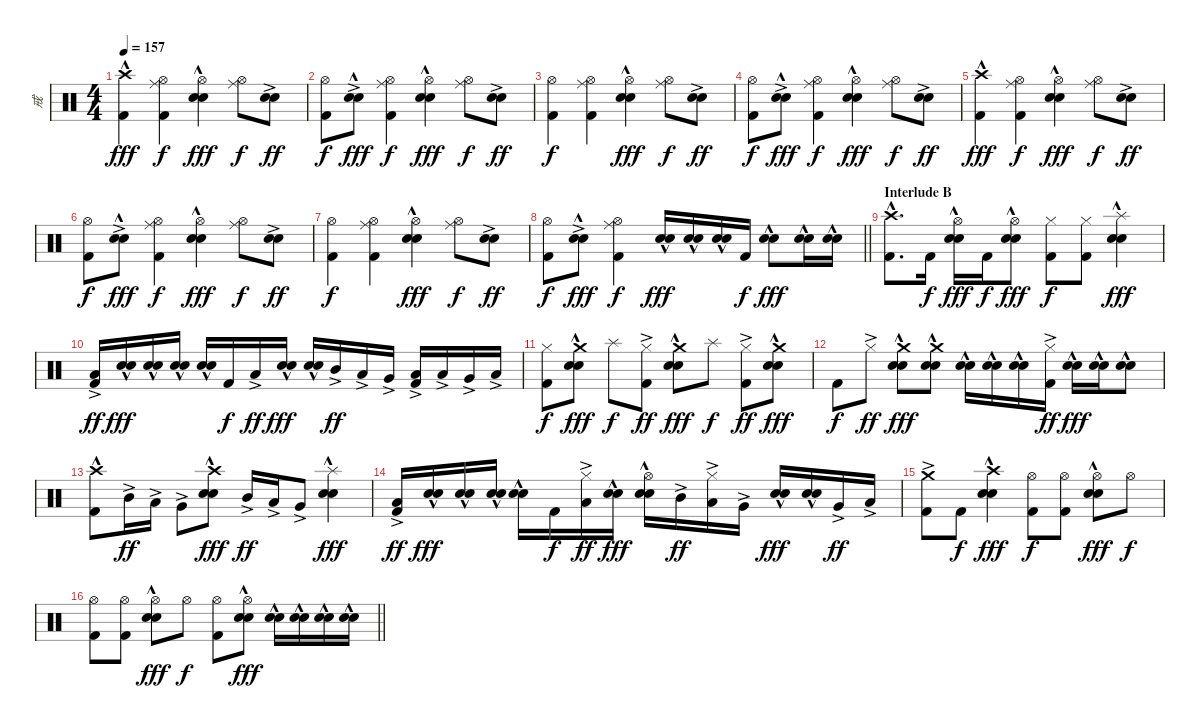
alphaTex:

\track ("戒" "戒") {instrument percussion}
\staff {score}
\articulation defaults
\ts (4 4)
\section ("" "")
\tempo 157
\clef neutral
\ks c
("Crash high (hit)"{hac} "Kick (hit) 2").4{dy fff} ("Hi-Hat (open)" "Ride (middle)" "Kick (hit) 2").4{dy f} ("Hi-Hat (open)" "Electric Snare (hit)"{hac} "Snare (hit) 2"{hac}).4{dy fff} ("Hi-Hat (open)" "Ride (middle)").8{dy f} ("Electric Snare (hit)"{ac} "Snare (hit) 2").8{dy ff} |
("Hi-Hat (open)" "Kick (hit) 2").8{dy f} ("Electric Snare (hit)"{ac} "Snare (hit) 2"{hac}).8{dy fff} ("Hi-Hat (open)" "Ride (middle)" "Kick (hit) 2").4{dy f} ("Hi-Hat (open)" "Electric Snare (hit)"{hac} "Snare (hit) 2"{hac}).4{dy fff} ("Hi-Hat (open)" "Ride (middle)").8{dy f} ("Electric Snare (hit)"{ac} "Snare (hit) 2").8{dy ff} |
("Hi-Hat (open)" "Kick (hit) 2").4{dy f} ("Hi-Hat (open)" "Ride (middle)" "Kick (hit) 2").4 ("Hi-Hat (open)" "Electric Snare (hit)"{hac} "Snare (hit) 2"{hac}).4{dy fff} ("Hi-Hat (open)" "Ride (middle)").8{dy f} ("Electric Snare (hit)"{ac} "Snare (hit) 2").8{dy ff} |
("Hi-Hat (open)" "Kick (hit) 2").8{dy f} ("Electric Snare (hit)"{ac} "Snare (hit) 2"{hac}).8{dy fff} ("Hi-Hat (open)" "Ride (middle)" "Kick (hit) 2").4{dy f} ("Hi-Hat (open)" "Electric Snare (hit)"{hac} "Snare (hit) 2"{hac}).4{dy fff} ("Hi-Hat (open)" "Ride (middle)").8{dy f} ("Electric Snare (hit)"{ac} "Snare (hit) 2").8{dy ff} |
("Crash high (hit)"{hac} "Kick (hit) 2").4{dy fff} ("Hi-Hat (open)" "Ride (middle)" "Kick (hit) 2").4{dy f} ("Hi-Hat (open)" "Electric Snare (hit)"{hac} "Snare (hit) 2"{hac}).4{dy fff} ("Hi-Hat (open)" "Ride (middle)").8{dy f} ("Electric Snare (hit)"{ac} "Snare (hit) 2").8{dy ff} |
("Hi-Hat (open)" "Kick (hit) 2").8{dy f} ("Electric Snare (hit)"{ac} "Snare (hit) 2"{hac}).8{dy fff} ("Hi-Hat (open)" "Ride (middle)" "Kick (hit) 2").4{dy f} ("Hi-Hat (open)" "Electric Snare (hit)"{hac} "Snare (hit) 2"{hac}).4{dy fff} ("Hi-Hat (open)" "Ride (middle)").8{dy f} ("Electric Snare (hit)"{ac} "Snare (hit) 2").8{dy ff} |
("Hi-Hat (open)" "Kick (hit) 2").4{dy f} ("Hi-Hat (open)" "Ride (middle)" "Kick (hit) 2").4 ("Hi-Hat (open)" "Electric Snare (hit)"{hac} "Snare (hit) 2"{hac}).4{dy fff} ("Hi-Hat (open)" "Ride (middle)").8{dy f} ("Electric Snare (hit)"{ac} "Snare (hit) 2").8{dy ff} |
\barLineRight lightlight
("Hi-Hat (open)" "Kick (hit) 2").8{dy f} ("Electric Snare (hit)"{ac} "Snare (hit) 2"{hac}).8{dy fff} ("Hi-Hat (open)" "Ride (middle)" "Kick (hit) 2").4{dy f} ("Electric Snare (hit)"{hac} "Snare (hit) 2").16{dy fff} ("Electric Snare (hit)"{hac} "Snare (hit) 2").16 ("Electric Snare (hit)"{hac} "Snare (hit) 2").16 "Kick (hit) 2".16{dy f} ("Electric Snare (hit)"{hac} "Snare (hit) 2").8{dy fff} ("Electric Snare (hit)"{hac} "Snare (hit) 2").16 ("Electric Snare (hit)"{hac} "Snare (hit) 2").16 |
\section ("" "Interlude B")
("Crash high (hit)"{hac} "Kick (hit) 2").8{d} "Kick (hit) 2".16{dy f} ("Hi-Hat (open)" "Electric Snare (hit)"{hac} "Snare (hit) 2").16{dy fff} "Kick (hit) 2".16{dy f} ("Hi-Hat (open)" "Electric Snare (hit)"{hac} "Snare (hit) 2").8{dy fff} ("Hi-Hat (closed)" "Kick (hit) 2").8{dy f} ("Hi-Hat (closed)" "Kick (hit) 2").8 ("Splash (hit)"{hac} "Electric Snare (hit)"{hac} "Snare (hit) 2").4{dy fff} |
("Low Tom (hit)"{ac} "Kick (hit) 2").16{dy ff} ("Electric Snare (hit)"{hac} "Snare (hit) 2").16{dy fff} ("Electric Snare (hit)"{hac} "Snare (hit) 2").16 ("Electric Snare (hit)"{hac} "Snare (hit) 2").16 ("Electric Snare (hit)"{hac} "Snare (hit) 2").16 "Kick (hit) 2".16{dy f} "Low Tom (hit)"{ac}.16{dy ff} ("Electric Snare (hit)"{hac} "Snare (hit) 2").16{dy fff} ("Electric Snare (hit)"{hac} "Snare (hit) 2").16 "Mid Tom (hit)"{ac}.16{dy ff} "Low Tom (hit)"{ac}.16 "Very Low Tom (hit)"{ac}.16 ("Low Tom (hit)"{ac} "Kick (hit) 2").16 "Low Tom (hit)"{ac}.16 "Very Low Tom (hit)"{ac}.16 "Low Floor Tom (hit)"{ac}.16 |
("Hi-Hat (closed)" "Kick (hit) 2").8{dy f} ("Crash medium (hit)" "Electric Snare (hit)"{hac} "Snare (hit) 2").8{dy fff} "Splash (hit)".8{dy f} ("Hi-Hat (closed)"{ac} "Kick (hit) 2").8{dy ff} ("Crash medium (hit)" "Electric Snare (hit)"{hac} "Snare (hit) 2").8{dy fff} "Splash (hit)".8{dy f} ("Hi-Hat (closed)"{ac} "Kick (hit) 2").8{dy ff} ("Crash medium (hit)" "Electric Snare (hit)"{hac} "Snare (hit) 2").8{dy fff} |
"Kick (hit) 2".8{dy f} "Hi-Hat (closed)"{ac}.8{dy ff} ("Crash medium (hit)" "Electric Snare (hit)"{hac} "Snare (hit) 2").8{dy fff} ("Crash medium (hit)" "Electric Snare (hit)"{hac} "Snare (hit) 2").8 ("Electric Snare (hit)"{hac} "Snare (hit) 2").16 ("Electric Snare (hit)"{hac} "Snare (hit) 2").16 ("Electric Snare (hit)"{hac} "Snare (hit) 2").16 ("Hi-Hat (closed)"{ac} "Kick (hit) 2").16{dy ff} ("Electric Snare (hit)"{hac} "Snare (hit) 2").16{dy fff} ("Electric Snare (hit)"{hac} "Snare (hit) 2").16 ("Electric Snare (hit)"{hac} "Snare (hit) 2").8 |
("Crash high (hit)"{hac} "Kick (hit) 2").8 "Mid Tom (hit)"{ac}.16{dy ff} "Low Tom (hit)"{ac}.16 "Very Low Tom (hit)"{ac}.8 ("Crash high (hit)"{hac} "Electric Snare (hit)"{hac} "Snare (hit) 2").8{dy fff} "Mid Tom (hit)"{ac}.16{dy ff} "Low Tom (hit)"{ac}.16 "Very Low Tom (hit)"{ac}.8 ("Splash (hit)"{hac} "Electric Snare (hit)"{hac} "Snare (hit) 2").4{dy fff} |
("Low Tom (hit)"{ac} "Kick (hit) 2").16{dy ff} ("Electric Snare (hit)"{hac} "Snare (hit) 2").16{dy fff} ("Electric Snare (hit)"{hac} "Snare (hit) 2").16 ("Electric Snare (hit)"{hac} "Snare (hit) 2").16 ("Electric Snare (hit)"{hac} "Snare (hit) 2").16 "Kick (hit) 2".16{dy f} ("Hi-Hat (closed)" "Low Tom (hit)"{ac}).16{dy ff} ("Electric Snare (hit)"{hac} "Snare (hit) 2").16{dy fff} ("Hi-Hat (open)" "Electric Snare (hit)"{hac} "Snare (hit) 2").16 "Mid Tom (hit)"{ac}.16{dy ff} ("Hi-Hat (closed)" "Low Tom (hit)"{ac}).16 "Very Low Tom (hit)"{ac}.16 ("Electric Snare (hit)"{hac} "Snare (hit) 2").16{dy fff} ("Electric Snare (hit)"{hac} "Snare (hit) 2").16 "Very Low Tom (hit)"{ac}.16{dy ff} "Low Floor Tom (hit)"{ac}.16 |
("Crash medium (hit)"{ac} "Kick (hit) 2").8 "Kick (hit) 2".8{dy f} ("Crash high (hit)"{hac} "Electric Snare (hit)"{hac} "Snare (hit) 2").4{dy fff} ("Hi-Hat (open)" "Kick (hit) 2").8{dy f} ("Hi-Hat (open)" "Kick (hit) 2").8 ("Hi-Hat (open)" "Electric Snare (hit)"{hac} "Snare (hit) 2").8{dy fff} "Hi-Hat (open)".8{dy f} |
\barLineRight lightlight
("Hi-Hat (open)" "Kick (hit) 2").8 ("Hi-Hat (open)" "Kick (hit) 2").8 ("Hi-Hat (open)" "Electric Snare (hit)"{hac} "Snare (hit) 2").8{dy fff} "Hi-Hat (open)".8{dy f} ("Hi-Hat (open)" "Kick (hit) 2").8 ("Hi-Hat (open)" "Electric Snare (hit)"{hac} "Snare (hit) 2").8{dy fff} ("Electric Snare (hit)"{hac} "Snare (hit) 2").16 ("Electric Snare (hit)"{hac} "Snare (hit) 2").16 ("Electric Snare (hit)"{hac} "Snare (hit) 2").16 ("Electric Snare (hit)"{hac} "Snare (hit) 2").16
